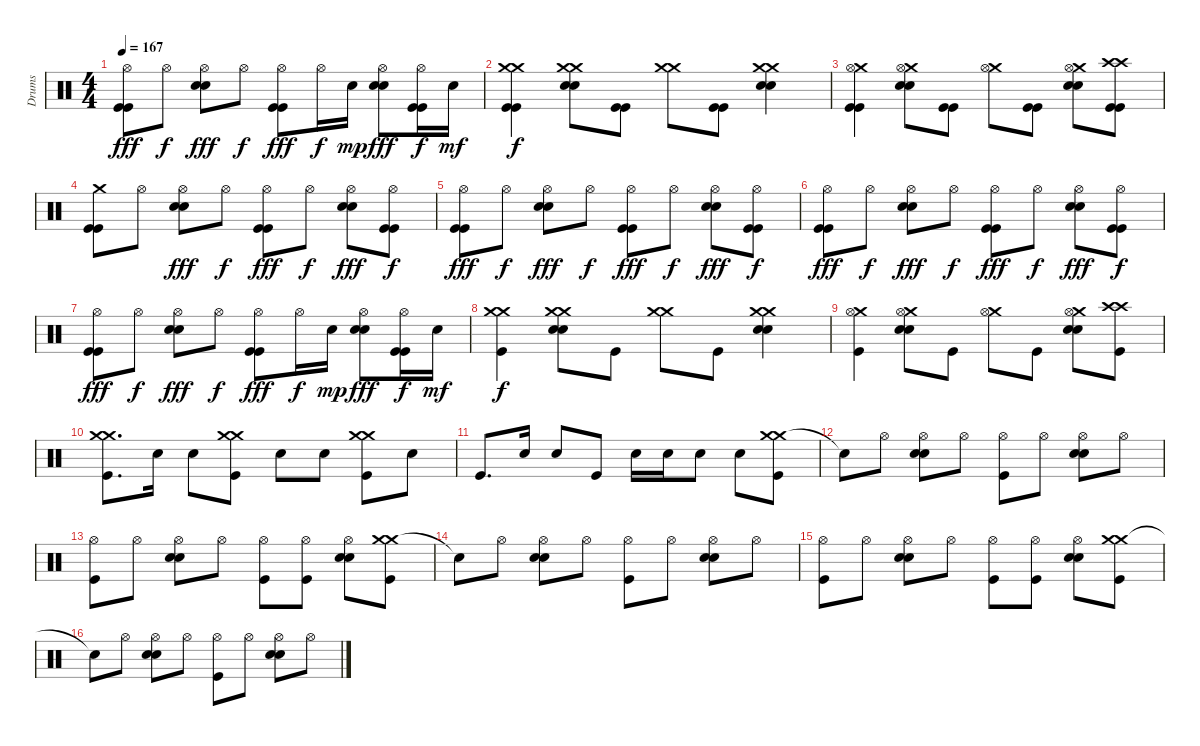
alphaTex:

\track ("Drums" "Drums") {instrument percussion}
\staff {score}
\articulation defaults
\ts (4 4)
\tempo 167
\clef neutral
\ks c
("Hi-Hat (open)" "Kick (hit)" "Kick (hit)").8{dy fff} "Hi-Hat (open)".8{dy f} ("Hi-Hat (open)" "Snare (hit) 2" "Snare (hit) 2").8{dy fff} "Hi-Hat (open)".8{dy f} ("Hi-Hat (open)" "Kick (hit)" "Kick (hit)").8{dy fff} "Hi-Hat (open)".16{dy f} "Snare (hit) 2".16{dy mp} ("Hi-Hat (open)" "Snare (hit) 2" "Snare (hit) 2").8{dy fff} ("Hi-Hat (open)" "Kick (hit)" "Kick (hit)").16{dy f} "Snare (hit) 2".16{dy mf} |
("Crash medium (hit)" "Crash medium (hit)" "Kick (hit)" "Kick (hit)").4{dy f} ("Crash medium (hit)" "Snare (hit) 2" "Snare (hit) 2" "Crash medium (hit)").8 ("Kick (hit)" "Kick (hit)").8 ("Crash medium (hit)" "Crash medium (hit)").8 ("Kick (hit)" "Kick (hit)").8 ("Crash medium (hit)" "Snare (hit) 2" "Snare (hit) 2" "Crash medium (hit)").4 |
("Crash medium (hit)" "Hi-Hat (open)" "Kick (hit)" "Kick (hit)").4 ("Crash medium (hit)" "Snare (hit) 2" "Snare (hit) 2" "Hi-Hat (open)").8 ("Kick (hit)" "Kick (hit)").8 ("Crash medium (hit)" "Hi-Hat (open)").8 ("Kick (hit)" "Kick (hit)").8 ("Crash medium (hit)" "Snare (hit) 2" "Snare (hit) 2" "Hi-Hat (open)").8 ("Crash high (hit)" "Crash high (hit)" "Kick (hit)" "Kick (hit)").8 |
("Crash medium (hit)" "Kick (hit)" "Kick (hit)").8 "Hi-Hat (open)".8 ("Hi-Hat (open)" "Snare (hit) 2" "Snare (hit) 2").8{dy fff} "Hi-Hat (open)".8{dy f} ("Hi-Hat (open)" "Kick (hit)" "Kick (hit)").8{dy fff} "Hi-Hat (open)".8{dy f} ("Hi-Hat (open)" "Snare (hit) 2" "Snare (hit) 2").8{dy fff} ("Hi-Hat (open)" "Kick (hit)" "Kick (hit)").8{dy f} |
("Hi-Hat (open)" "Kick (hit)" "Kick (hit)").8{dy fff} "Hi-Hat (open)".8{dy f} ("Hi-Hat (open)" "Snare (hit) 2" "Snare (hit) 2").8{dy fff} "Hi-Hat (open)".8{dy f} ("Hi-Hat (open)" "Kick (hit)" "Kick (hit)").8{dy fff} "Hi-Hat (open)".8{dy f} ("Hi-Hat (open)" "Snare (hit) 2" "Snare (hit) 2").8{dy fff} ("Hi-Hat (open)" "Kick (hit)" "Kick (hit)").8{dy f} |
("Hi-Hat (open)" "Kick (hit)" "Kick (hit)").8{dy fff} "Hi-Hat (open)".8{dy f} ("Hi-Hat (open)" "Snare (hit) 2" "Snare (hit) 2").8{dy fff} "Hi-Hat (open)".8{dy f} ("Hi-Hat (open)" "Kick (hit)" "Kick (hit)").8{dy fff} "Hi-Hat (open)".8{dy f} ("Hi-Hat (open)" "Snare (hit) 2" "Snare (hit) 2").8{dy fff} ("Hi-Hat (open)" "Kick (hit)" "Kick (hit)").8{dy f} |
("Hi-Hat (open)" "Kick (hit)" "Kick (hit)").8{dy fff} "Hi-Hat (open)".8{dy f} ("Hi-Hat (open)" "Snare (hit) 2" "Snare (hit) 2").8{dy fff} "Hi-Hat (open)".8{dy f} ("Hi-Hat (open)" "Kick (hit)" "Kick (hit)").8{dy fff} "Hi-Hat (open)".16{dy f} "Snare (hit) 2".16{dy mp} ("Hi-Hat (open)" "Snare (hit) 2" "Snare (hit) 2").8{dy fff} ("Hi-Hat (open)" "Kick (hit)" "Kick (hit)").16{dy f} "Snare (hit) 2".16{dy mf} |
("Crash medium (hit)" "Crash medium (hit)" "Kick (hit)").4{dy f} ("Crash medium (hit)" "Snare (hit) 2" "Snare (hit) 2" "Crash medium (hit)").8 "Kick (hit)".8 ("Crash medium (hit)" "Crash medium (hit)").8 "Kick (hit)".8 ("Crash medium (hit)" "Snare (hit) 2" "Snare (hit) 2" "Crash medium (hit)").4 |
("Crash medium (hit)" "Hi-Hat (open)" "Kick (hit)").4 ("Crash medium (hit)" "Snare (hit) 2" "Snare (hit) 2" "Hi-Hat (open)").8 "Kick (hit)".8 ("Crash medium (hit)" "Hi-Hat (open)").8 "Kick (hit)".8 ("Crash medium (hit)" "Snare (hit) 2" "Snare (hit) 2" "Hi-Hat (open)").8 ("Crash high (hit)" "Crash high (hit)" "Kick (hit)").8 |
("Crash medium (hit)" "Crash medium (hit)" "Kick (hit)").8{d} "Snare (hit) 2".16 "Snare (hit) 2".8 ("Crash medium (hit)" "Crash medium (hit)" "Kick (hit)").8 "Snare (hit) 2".8 "Snare (hit) 2".8 ("Crash medium (hit)" "Crash medium (hit)" "Kick (hit)").8 "Snare (hit) 2".8 |
"Kick (hit)".8{d} "Snare (hit) 2".16 "Snare (hit) 2".8 "Kick (hit)".8 "Snare (hit) 2".16 "Snare (hit) 2".16 "Snare (hit) 2".8 "Snare (hit) 2".8 ("Crash medium (hit)" "Crash medium (hit)" "Kick (hit)").8 |
"Snare (hit)"{t}.8 "Hi-Hat (open)".8 ("Hi-Hat (open)" "Snare (hit) 2" "Snare (hit) 2").8 "Hi-Hat (open)".8 ("Hi-Hat (open)" "Kick (hit)").8 "Hi-Hat (open)".8 ("Hi-Hat (open)" "Snare (hit) 2" "Snare (hit) 2").8 "Hi-Hat (open)".8 |
("Hi-Hat (open)" "Kick (hit)").8 "Hi-Hat (open)".8 ("Hi-Hat (open)" "Snare (hit) 2" "Snare (hit) 2").8 "Hi-Hat (open)".8 ("Hi-Hat (open)" "Kick (hit)").8 ("Hi-Hat (open)" "Kick (hit)").8 ("Hi-Hat (open)" "Snare (hit) 2" "Snare (hit) 2").8 ("Crash medium (hit)" "Crash medium (hit)" "Kick (hit)").8 |
"Snare (hit)"{t}.8 "Hi-Hat (open)".8 ("Hi-Hat (open)" "Snare (hit) 2" "Snare (hit) 2").8 "Hi-Hat (open)".8 ("Hi-Hat (open)" "Kick (hit)").8 "Hi-Hat (open)".8 ("Hi-Hat (open)" "Snare (hit) 2" "Snare (hit) 2").8 "Hi-Hat (open)".8 |
("Hi-Hat (open)" "Kick (hit)").8 "Hi-Hat (open)".8 ("Hi-Hat (open)" "Snare (hit) 2" "Snare (hit) 2").8 "Hi-Hat (open)".8 ("Hi-Hat (open)" "Kick (hit)").8 ("Hi-Hat (open)" "Kick (hit)").8 ("Hi-Hat (open)" "Snare (hit) 2" "Snare (hit) 2").8 ("Crash medium (hit)" "Crash medium (hit)" "Kick (hit)").8 |
"Snare (hit)"{t}.8 "Hi-Hat (open)".8 ("Hi-Hat (open)" "Snare (hit) 2" "Snare (hit) 2").8 "Hi-Hat (open)".8 ("Hi-Hat (open)" "Kick (hit)").8 "Hi-Hat (open)".8 ("Hi-Hat (open)" "Snare (hit) 2" "Snare (hit) 2").8 "Hi-Hat (open)".8
